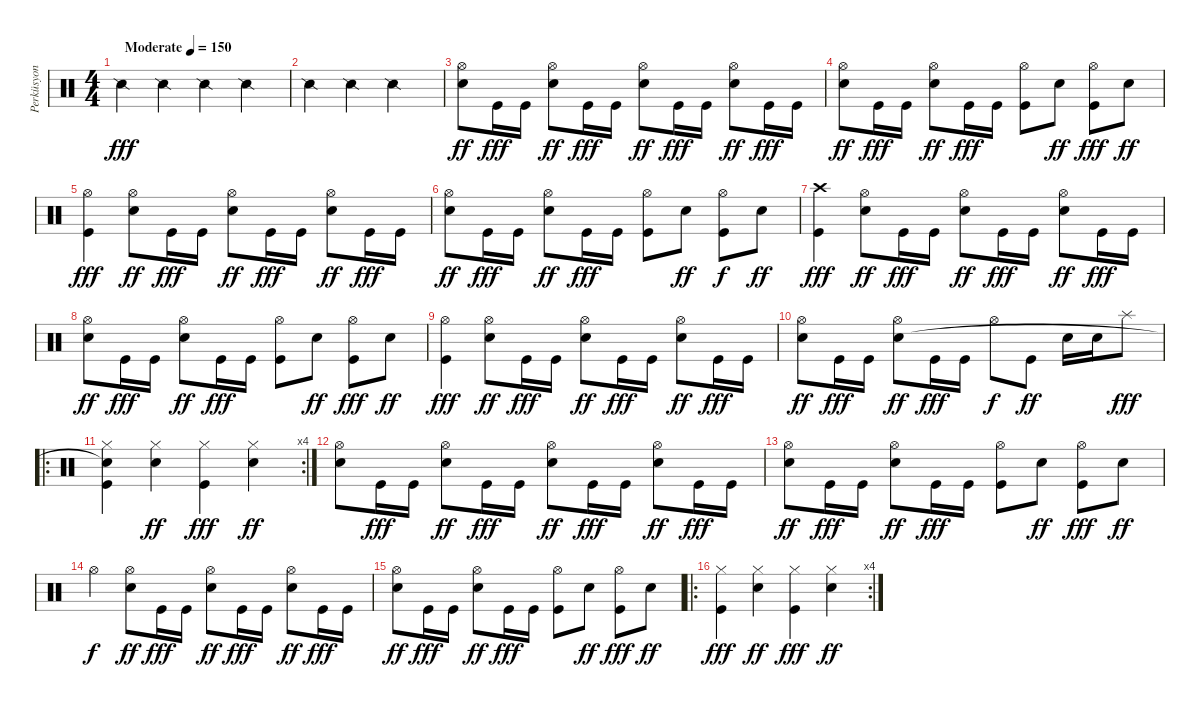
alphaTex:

\track ("Perküsyon" "Perküsyon") {instrument percussion}
\staff {score}
\articulation defaults
\ts (4 4)
\tempo (150 "Moderate")
\clef neutral
\ks c "Snare (side stick) 2".4{dy fff} "Snare (side stick) 2".4 "Snare (side stick) 2".4 "Snare (side stick) 2".4
|
"Snare (side stick) 2".4 "Snare (side stick) 2".4 "Snare (side stick) 2".2 |
("Hi-Hat (open)" "Snare (hit) 2").8{dy ff} "Kick (hit)".16{dy fff} "Kick (hit)".16 ("Hi-Hat (open)" "Snare (hit) 2").8{dy ff} "Kick (hit)".16{dy fff} "Kick (hit)".16 ("Hi-Hat (open)" "Snare (hit) 2").8{dy ff} "Kick (hit)".16{dy fff} "Kick (hit)".16 ("Hi-Hat (open)" "Snare (hit) 2").8{dy ff} "Kick (hit)".16{dy fff} "Kick (hit)".16 |
("Hi-Hat (open)" "Snare (hit) 2").8{dy ff} "Kick (hit)".16{dy fff} "Kick (hit)".16 ("Hi-Hat (open)" "Snare (hit) 2").8{dy ff} "Kick (hit)".16{dy fff} "Kick (hit)".16 ("Hi-Hat (open)" "Kick (hit)").8 "Snare (hit) 2".8{dy ff} ("Hi-Hat (open)" "Kick (hit)").8{dy fff} "Snare (hit) 2".8{dy ff} |
("Hi-Hat (open)" "Kick (hit)").4{dy fff} ("Hi-Hat (open)" "Snare (hit) 2").8{dy ff} "Kick (hit)".16{dy fff} "Kick (hit)".16 ("Hi-Hat (open)" "Snare (hit) 2").8{dy ff} "Kick (hit)".16{dy fff} "Kick (hit)".16 ("Hi-Hat (open)" "Snare (hit) 2").8{dy ff} "Kick (hit)".16{dy fff} "Kick (hit)".16 |
("Hi-Hat (open)" "Snare (hit) 2").8{dy ff} "Kick (hit)".16{dy fff} "Kick (hit)".16 ("Hi-Hat (open)" "Snare (hit) 2").8{dy ff} "Kick (hit)".16{dy fff} "Kick (hit)".16 ("Hi-Hat (open)" "Kick (hit)").8 "Snare (hit) 2".8{dy ff} ("Hi-Hat (open)" "Kick (hit)").8{dy f} "Snare (hit) 2".8{dy ff} |
("Crash high (hit)" "Kick (hit)").4{dy fff} ("Hi-Hat (open)" "Snare (hit) 2").8{dy ff} "Kick (hit)".16{dy fff} "Kick (hit)".16 ("Hi-Hat (open)" "Snare (hit) 2").8{dy ff} "Kick (hit)".16{dy fff} "Kick (hit)".16 ("Hi-Hat (open)" "Snare (hit) 2").8{dy ff} "Kick (hit)".16{dy fff} "Kick (hit)".16 |
("Hi-Hat (open)" "Snare (hit) 2").8{dy ff} "Kick (hit)".16{dy fff} "Kick (hit)".16 ("Hi-Hat (open)" "Snare (hit) 2").8{dy ff} "Kick (hit)".16{dy fff} "Kick (hit)".16 ("Hi-Hat (open)" "Kick (hit)").8 "Snare (hit) 2".8{dy ff} ("Hi-Hat (open)" "Kick (hit)").8{dy fff} "Snare (hit) 2".8{dy ff} |
("Hi-Hat (open)" "Kick (hit)").4{dy fff} ("Hi-Hat (open)" "Snare (hit) 2").8{dy ff} "Kick (hit)".16{dy fff} "Kick (hit)".16 ("Hi-Hat (open)" "Snare (hit) 2").8{dy ff} "Kick (hit)".16{dy fff} "Kick (hit)".16 ("Hi-Hat (open)" "Snare (hit) 2").8{dy ff} "Kick (hit)".16{dy fff} "Kick (hit)".16 |
("Hi-Hat (open)" "Snare (hit) 2").8{dy ff} "Kick (hit)".16{dy fff} "Kick (hit)".16 ("Hi-Hat (open)" "Snare (hit) 2").8{dy ff} "Kick (hit)".16{dy fff} "Kick (hit)".16 "Hi-Hat (open)".8{dy f} "Kick (hit)".8{dy ff} "Snare (hit) 2".16 "Snare (hit) 2".16 "Splash (hit)".8{dy fff} |
\ro
\rc 4
("Hi-Hat (closed)" "Snare (hit)"{t} "Kick (hit)").4 ("Hi-Hat (closed)" "Snare (hit) 2").4{dy ff} ("Hi-Hat (closed)" "Kick (hit)").4{dy fff} ("Hi-Hat (closed)" "Snare (hit) 2").4{dy ff} |
("Hi-Hat (open)" "Snare (hit) 2").8 "Kick (hit)".16{dy fff} "Kick (hit)".16 ("Hi-Hat (open)" "Snare (hit) 2").8{dy ff} "Kick (hit)".16{dy fff} "Kick (hit)".16 ("Hi-Hat (open)" "Snare (hit) 2").8{dy ff} "Kick (hit)".16{dy fff} "Kick (hit)".16 ("Hi-Hat (open)" "Snare (hit) 2").8{dy ff} "Kick (hit)".16{dy fff} "Kick (hit)".16 |
("Hi-Hat (open)" "Snare (hit) 2").8{dy ff} "Kick (hit)".16{dy fff} "Kick (hit)".16 ("Hi-Hat (open)" "Snare (hit) 2").8{dy ff} "Kick (hit)".16{dy fff} "Kick (hit)".16 ("Hi-Hat (open)" "Kick (hit)").8 "Snare (hit) 2".8{dy ff} ("Hi-Hat (open)" "Kick (hit)").8{dy fff} "Snare (hit) 2".8{dy ff} |
"Hi-Hat (open)".4{dy f} ("Hi-Hat (open)" "Snare (hit) 2").8{dy ff} "Kick (hit)".16{dy fff} "Kick (hit)".16 ("Hi-Hat (open)" "Snare (hit) 2").8{dy ff} "Kick (hit)".16{dy fff} "Kick (hit)".16 ("Hi-Hat (open)" "Snare (hit) 2").8{dy ff} "Kick (hit)".16{dy fff} "Kick (hit)".16 |
("Hi-Hat (open)" "Snare (hit) 2").8{dy ff} "Kick (hit)".16{dy fff} "Kick (hit)".16 ("Hi-Hat (open)" "Snare (hit) 2").8{dy ff} "Kick (hit)".16{dy fff} "Kick (hit)".16 ("Hi-Hat (open)" "Kick (hit)").8 "Snare (hit) 2".8{dy ff} ("Hi-Hat (open)" "Kick (hit)").8{dy fff} "Snare (hit) 2".8{dy ff} |
\ro
\rc 4
("Hi-Hat (closed)" "Kick (hit)").4{dy fff} ("Hi-Hat (closed)" "Snare (hit) 2").4{dy ff} ("Hi-Hat (closed)" "Kick (hit)").4{dy fff} ("Hi-Hat (closed)" "Snare (hit) 2").4{dy ff}
